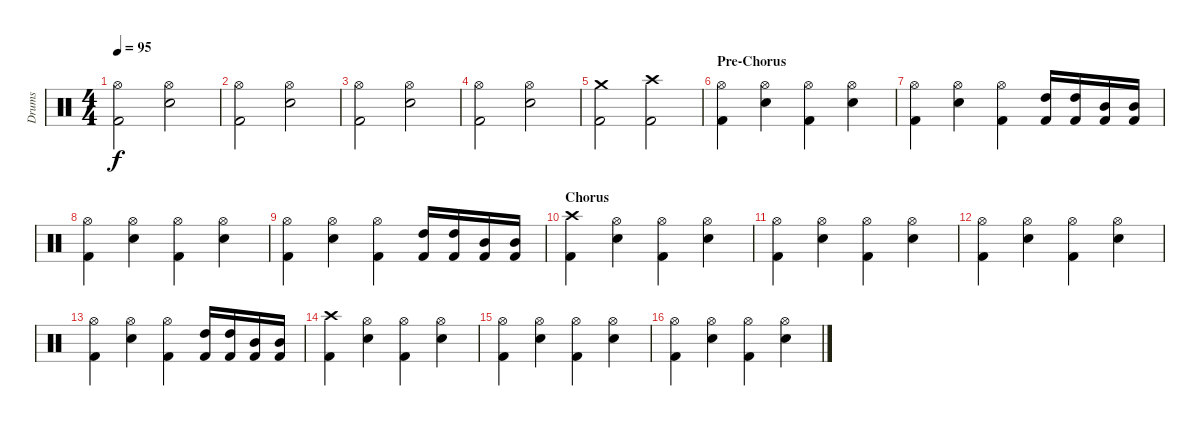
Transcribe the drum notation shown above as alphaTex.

\track ("Drums" "Drums") {instrument percussion}
\staff {score}
\articulation defaults
\ts (4 4)
\tempo 95
\clef neutral
\ks c
("Hi-Hat (open)" "Kick (hit) 2").2{dy f} ("Hi-Hat (open)" "Electric Snare (hit)").2 |
("Hi-Hat (open)" "Kick (hit) 2").2 ("Hi-Hat (open)" "Electric Snare (hit)").2 |
("Hi-Hat (open)" "Kick (hit) 2").2 ("Hi-Hat (open)" "Electric Snare (hit)").2 |
("Hi-Hat (open)" "Kick (hit) 2").2 ("Hi-Hat (open)" "Electric Snare (hit)").2 |
("Crash medium (hit)" "Kick (hit) 2").2 ("Crash high (hit)" "Kick (hit) 2").2 |
\section ("" "Pre-Chorus")
("Hi-Hat (open)" "Kick (hit) 2").4 ("Hi-Hat (open)" "Electric Snare (hit)").4 ("Hi-Hat (open)" "Kick (hit) 2").4 ("Hi-Hat (open)" "Electric Snare (hit)").4 |
("Hi-Hat (open)" "Kick (hit) 2").4 ("Hi-Hat (open)" "Electric Snare (hit)").4 ("Hi-Hat (open)" "Kick (hit) 2").4 ("High Tom (hit)" "Kick (hit) 2").16 ("High Tom (hit)" "Kick (hit) 2").16 ("Mid Tom (hit)" "Kick (hit) 2").16 ("Mid Tom (hit)" "Kick (hit) 2").16 |
("Hi-Hat (open)" "Kick (hit) 2").4 ("Hi-Hat (open)" "Electric Snare (hit)").4 ("Hi-Hat (open)" "Kick (hit) 2").4 ("Hi-Hat (open)" "Electric Snare (hit)").4 |
("Hi-Hat (open)" "Kick (hit) 2").4 ("Hi-Hat (open)" "Electric Snare (hit)").4 ("Hi-Hat (open)" "Kick (hit) 2").4 ("High Tom (hit)" "Kick (hit) 2").16 ("High Tom (hit)" "Kick (hit) 2").16 ("Mid Tom (hit)" "Kick (hit) 2").16 ("Mid Tom (hit)" "Kick (hit) 2").16 |
\section ("" "Chorus")
("Crash high (hit)" "Kick (hit) 2").4 ("Hi-Hat (open)" "Electric Snare (hit)").4 ("Hi-Hat (open)" "Kick (hit) 2").4 ("Hi-Hat (open)" "Electric Snare (hit)").4 |
("Hi-Hat (open)" "Kick (hit) 2").4 ("Hi-Hat (open)" "Electric Snare (hit)").4 ("Hi-Hat (open)" "Kick (hit) 2").4 ("Hi-Hat (open)" "Electric Snare (hit)").4 |
("Hi-Hat (open)" "Kick (hit) 2").4 ("Hi-Hat (open)" "Electric Snare (hit)").4 ("Hi-Hat (open)" "Kick (hit) 2").4 ("Hi-Hat (open)" "Electric Snare (hit)").4 |
("Hi-Hat (open)" "Kick (hit) 2").4 ("Hi-Hat (open)" "Electric Snare (hit)").4 ("Hi-Hat (open)" "Kick (hit) 2").4 ("High Tom (hit)" "Kick (hit) 2").16 ("High Tom (hit)" "Kick (hit) 2").16 ("Mid Tom (hit)" "Kick (hit) 2").16 ("Mid Tom (hit)" "Kick (hit) 2").16 |
("Crash high (hit)" "Kick (hit) 2").4 ("Hi-Hat (open)" "Electric Snare (hit)").4 ("Hi-Hat (open)" "Kick (hit) 2").4 ("Hi-Hat (open)" "Electric Snare (hit)").4 |
("Hi-Hat (open)" "Kick (hit) 2").4 ("Hi-Hat (open)" "Electric Snare (hit)").4 ("Hi-Hat (open)" "Kick (hit) 2").4 ("Hi-Hat (open)" "Electric Snare (hit)").4 |
("Hi-Hat (open)" "Kick (hit) 2").4 ("Hi-Hat (open)" "Electric Snare (hit)").4 ("Hi-Hat (open)" "Kick (hit) 2").4 ("Hi-Hat (open)" "Electric Snare (hit)").4
